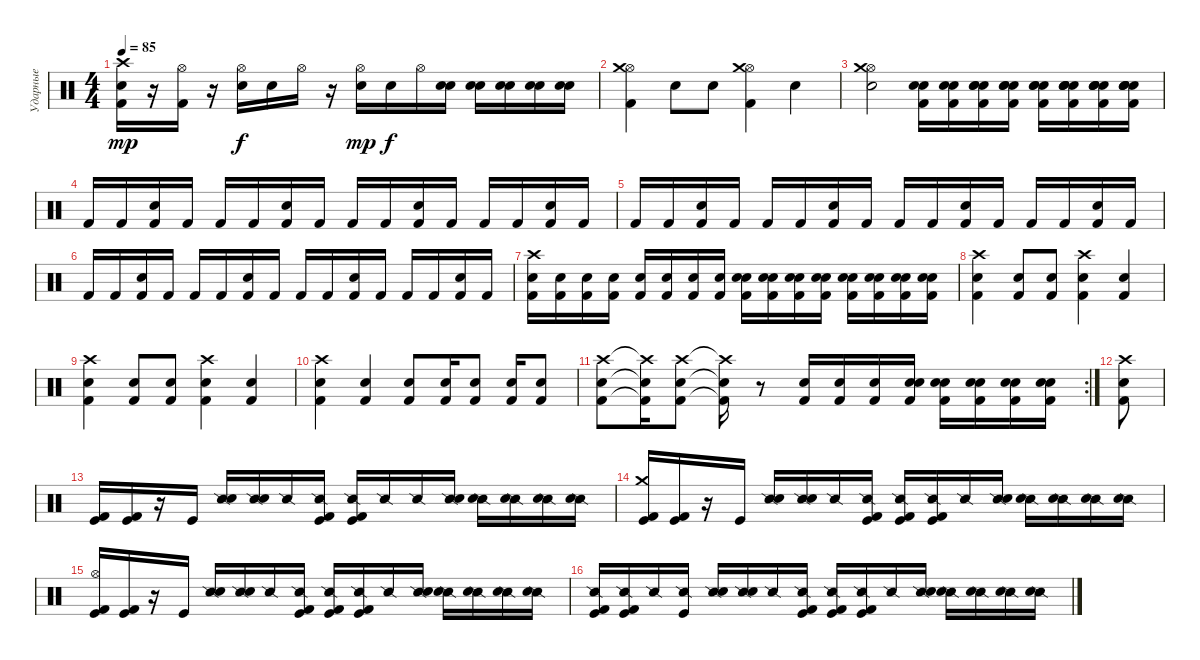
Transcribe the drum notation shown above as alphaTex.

\track ("Ударные" "Ударные") {instrument percussion}
\staff {score}
\articulation defaults
\ts (4 4)
\tempo 85
\clef neutral
\ks c
("Crash high (hit)" "Snare (hit) 2" "Kick (hit) 2").16{dy mp} r.16 ("Hi-Hat (open)" "Kick (hit) 2").16 r.16 ("Hi-Hat (open)" "Snare (hit) 2").16{dy f} "Snare (hit) 2".16 "Hi-Hat (open)".16 r.16 ("Hi-Hat (open)" "Snare (hit) 2").16{dy mp} "Snare (hit) 2".16{dy f} "Hi-Hat (open)".16 ("Snare (hit) 2" "Electric Snare (hit)").16 ("Snare (hit) 2" "Electric Snare (hit)").16 ("Snare (hit) 2" "Electric Snare (hit)").16 ("Snare (hit) 2" "Electric Snare (hit)").16 ("Snare (hit) 2" "Electric Snare (hit)").16 |
("Hi-Hat (open)" "Crash medium (hit)" "Kick (hit) 2").4 "Electric Snare (hit)".8 "Electric Snare (hit)".8 ("Hi-Hat (open)" "Crash medium (hit)" "Kick (hit) 2").4 "Electric Snare (hit)".4 |
("Hi-Hat (open)" "Crash medium (hit)" "Snare (hit) 2").2 ("Electric Snare (hit)" "Snare (hit) 2" "Kick (hit) 2").16 ("Electric Snare (hit)" "Snare (hit) 2" "Kick (hit) 2").16 ("Electric Snare (hit)" "Electric Snare (hit)" "Snare (hit) 2" "Kick (hit) 2").16 ("Electric Snare (hit)" "Electric Snare (hit)" "Snare (hit) 2" "Kick (hit) 2").16 ("Electric Snare (hit)" "Electric Snare (hit)" "Snare (hit) 2" "Kick (hit) 2").16 ("Electric Snare (hit)" "Electric Snare (hit)" "Electric Snare (hit)" "Snare (hit) 2" "Kick (hit) 2").16 ("Electric Snare (hit)" "Electric Snare (hit)" "Electric Snare (hit)" "Snare (hit) 2" "Kick (hit) 2").16 ("Electric Snare (hit)" "Electric Snare (hit)" "Electric Snare (hit)" "Snare (hit) 2" "Kick (hit) 2").16 |
"Kick (hit) 2".16 "Kick (hit) 2".16 ("Kick (hit) 2" "Snare (hit) 2").16 "Kick (hit) 2".16 "Kick (hit) 2".16 "Kick (hit) 2".16 ("Kick (hit) 2" "Snare (hit) 2").16 "Kick (hit) 2".16 "Kick (hit) 2".16 "Kick (hit) 2".16 ("Kick (hit) 2" "Snare (hit) 2").16 "Kick (hit) 2".16 "Kick (hit) 2".16 "Kick (hit) 2".16 ("Kick (hit) 2" "Snare (hit) 2").16 "Kick (hit) 2".16 |
"Kick (hit) 2".16 "Kick (hit) 2".16 ("Kick (hit) 2" "Snare (hit) 2").16 "Kick (hit) 2".16 "Kick (hit) 2".16 "Kick (hit) 2".16 ("Kick (hit) 2" "Snare (hit) 2").16 "Kick (hit) 2".16 "Kick (hit) 2".16 "Kick (hit) 2".16 ("Kick (hit) 2" "Snare (hit) 2").16 "Kick (hit) 2".16 "Kick (hit) 2".16 "Kick (hit) 2".16 ("Kick (hit) 2" "Snare (hit) 2").16 "Kick (hit) 2".16 |
"Kick (hit) 2".16 "Kick (hit) 2".16 ("Kick (hit) 2" "Snare (hit) 2").16 "Kick (hit) 2".16 "Kick (hit) 2".16 "Kick (hit) 2".16 ("Kick (hit) 2" "Snare (hit) 2").16 "Kick (hit) 2".16 "Kick (hit) 2".16 "Kick (hit) 2".16 ("Kick (hit) 2" "Snare (hit) 2").16 "Kick (hit) 2".16 "Kick (hit) 2".16 "Kick (hit) 2".16 ("Kick (hit) 2" "Snare (hit) 2").16 "Kick (hit) 2".16 |
("Kick (hit) 2" "Electric Snare (hit)" "Crash high (hit)").16 ("Kick (hit) 2" "Electric Snare (hit)").16 ("Kick (hit) 2" "Electric Snare (hit)").16 ("Kick (hit) 2" "Electric Snare (hit)").16 ("Kick (hit) 2" "Electric Snare (hit)").16 ("Kick (hit) 2" "Electric Snare (hit)").16 ("Kick (hit) 2" "Electric Snare (hit)").16 ("Kick (hit) 2" "Electric Snare (hit)").16 ("Kick (hit) 2" "Electric Snare (hit)" "Snare (hit) 2").16 ("Kick (hit) 2" "Electric Snare (hit)" "Snare (hit) 2").16 ("Kick (hit) 2" "Electric Snare (hit)" "Snare (hit) 2").16 ("Kick (hit) 2" "Electric Snare (hit)" "Snare (hit) 2").16 ("Kick (hit) 2" "Electric Snare (hit)" "Snare (hit) 2").16 ("Kick (hit) 2" "Electric Snare (hit)" "Snare (hit) 2").16 ("Kick (hit) 2" "Electric Snare (hit)" "Snare (hit) 2").16 ("Kick (hit) 2" "Electric Snare (hit)" "Snare (hit) 2").16 |
("Crash high (hit)" "Snare (hit) 2" "Kick (hit) 2").4 ("Electric Snare (hit)" "Kick (hit) 2").8 ("Electric Snare (hit)" "Kick (hit) 2").8 ("Crash high (hit)" "Snare (hit) 2" "Kick (hit) 2").4 ("Electric Snare (hit)" "Kick (hit) 2").4 |
("Crash high (hit)" "Snare (hit) 2" "Kick (hit) 2").4 ("Electric Snare (hit)" "Kick (hit) 2").8 ("Electric Snare (hit)" "Kick (hit) 2").8 ("Crash high (hit)" "Snare (hit) 2" "Kick (hit) 2").4 ("Electric Snare (hit)" "Kick (hit) 2").4 |
("Crash high (hit)" "Snare (hit) 2" "Kick (hit) 2").4 ("Electric Snare (hit)" "Kick (hit) 2").4 ("Electric Snare (hit)" "Kick (hit) 2").8 ("Kick (hit) 2" "Electric Snare (hit)").16 ("Electric Snare (hit)" "Kick (hit) 2").8 ("Electric Snare (hit)" "Kick (hit) 2").16 ("Electric Snare (hit)" "Kick (hit) 2").8 |
\rc 2
("Crash high (hit)" "Snare (hit) 2" "Kick (hit) 2").8 ("Crash high (hit)"{t} "Snare (hit) 2"{t} "Kick (hit) 2"{t}).16 ("Crash high (hit)" "Snare (hit) 2" "Kick (hit) 2").8 ("Crash high (hit)"{t} "Snare (hit) 2"{t} "Kick (hit) 2"{t}).16 r.8 ("Kick (hit) 2" "Electric Snare (hit)").16 ("Kick (hit) 2" "Electric Snare (hit)").16 ("Kick (hit) 2" "Electric Snare (hit)").16 ("Kick (hit) 2" "Electric Snare (hit)" "Snare (hit) 2").16 ("Kick (hit) 2" "Electric Snare (hit)" "Snare (hit) 2").16 ("Kick (hit) 2" "Electric Snare (hit)" "Snare (hit) 2").16 ("Kick (hit) 2" "Electric Snare (hit)" "Snare (hit) 2").16 ("Kick (hit) 2" "Electric Snare (hit)" "Snare (hit) 2").16 |
("Crash high (hit)" "Snare (hit) 2" "Kick (hit) 2").8 |
("Kick (hit)" "Kick (hit) 2").16 ("Kick (hit)" "Kick (hit) 2").16 r.16 "Kick (hit)".16 ("Snare (side stick) 2" "Electric Snare (hit)").16 ("Snare (side stick) 2" "Electric Snare (hit)").16 "Snare (side stick) 2".16 ("Snare (side stick) 2" "Kick (hit) 2" "Kick (hit)").16 ("Snare (side stick) 2" "Kick (hit) 2" "Kick (hit)").16 "Snare (side stick) 2".16 "Snare (side stick) 2".16 ("Snare (side stick) 2" "Electric Snare (hit)").16 ("Snare (side stick) 2" "Electric Snare (hit)").16 ("Snare (side stick) 2" "Electric Snare (hit)").16 ("Snare (side stick) 2" "Electric Snare (hit)").16 ("Snare (side stick) 2" "Electric Snare (hit)").16 |
("Crash medium (hit)" "Kick (hit)" "Kick (hit) 2").16 ("Kick (hit)" "Kick (hit) 2").16 r.16 "Kick (hit)".16 ("Snare (side stick) 2" "Electric Snare (hit)").16 ("Snare (side stick) 2" "Electric Snare (hit)").16 "Snare (side stick) 2".16 ("Snare (side stick) 2" "Kick (hit) 2" "Kick (hit)").16 ("Snare (side stick) 2" "Kick (hit) 2" "Kick (hit)").16 ("Snare (side stick) 2" "Kick (hit) 2" "Kick (hit)").16 "Snare (side stick) 2".16 ("Snare (side stick) 2" "Electric Snare (hit)").16 ("Snare (side stick) 2" "Electric Snare (hit)").16 ("Snare (side stick) 2" "Electric Snare (hit)").16 ("Snare (side stick) 2" "Electric Snare (hit)").16 ("Snare (side stick) 2" "Electric Snare (hit)").16 |
("Hi-Hat (open)" "Kick (hit)" "Kick (hit) 2").16 ("Kick (hit)" "Kick (hit) 2").16 r.16 "Kick (hit)".16 ("Snare (side stick) 2" "Electric Snare (hit)").16 ("Snare (side stick) 2" "Electric Snare (hit)").16 "Snare (side stick) 2".16 ("Snare (side stick) 2" "Kick (hit) 2" "Kick (hit)").16 ("Snare (side stick) 2" "Kick (hit) 2" "Kick (hit)").16 ("Snare (side stick) 2" "Kick (hit) 2" "Kick (hit)").16 "Snare (side stick) 2".16 ("Snare (side stick) 2" "Electric Snare (hit)").16 ("Snare (side stick) 2" "Electric Snare (hit)").16 ("Snare (side stick) 2" "Electric Snare (hit)").16 ("Snare (side stick) 2" "Electric Snare (hit)").16 ("Snare (side stick) 2" "Electric Snare (hit)").16 |
("Snare (side stick) 2" "Kick (hit)" "Kick (hit) 2").16 ("Snare (side stick) 2" "Kick (hit)" "Kick (hit) 2").16 "Snare (side stick) 2".16 ("Snare (side stick) 2" "Kick (hit)").16 ("Snare (side stick) 2" "Electric Snare (hit)").16 ("Snare (side stick) 2" "Electric Snare (hit)").16 "Snare (side stick) 2".16 ("Snare (side stick) 2" "Kick (hit) 2" "Kick (hit)").16 ("Snare (side stick) 2" "Kick (hit) 2" "Kick (hit)").16 ("Snare (side stick) 2" "Kick (hit) 2" "Kick (hit)").16 "Snare (side stick) 2".16 ("Snare (side stick) 2" "Electric Snare (hit)").16 ("Snare (side stick) 2" "Electric Snare (hit)").16 ("Snare (side stick) 2" "Electric Snare (hit)").16 ("Snare (side stick) 2" "Electric Snare (hit)").16 ("Snare (side stick) 2" "Electric Snare (hit)").16
